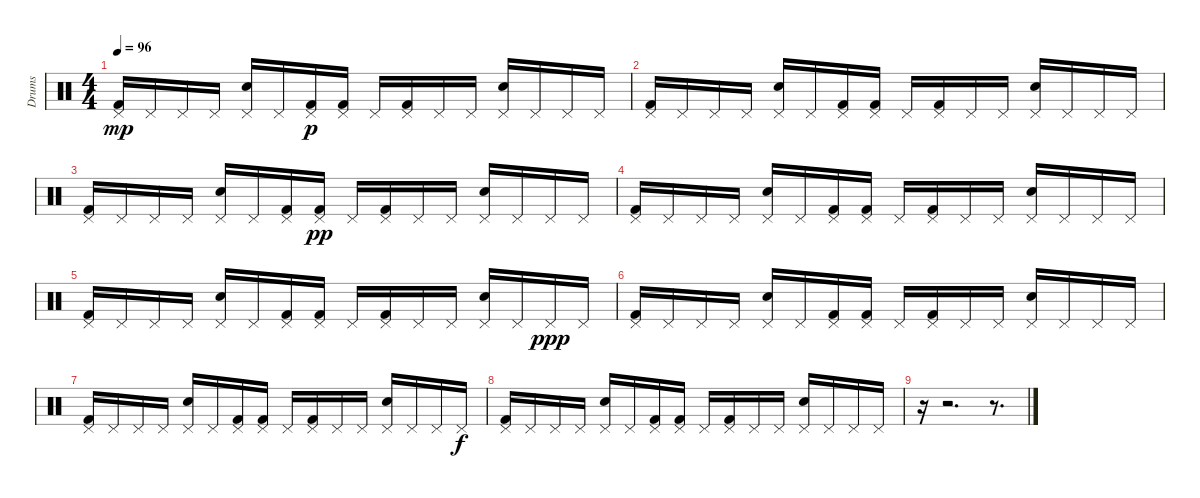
\track ("Drums" "Drums") {instrument percussion}
\staff {score}
\articulation defaults
\ts (4 4)
\tempo 96
\clef neutral
\ks c
("Pedal Hi-Hat (hit)" "Kick (hit) 2").16{dy mp} "Pedal Hi-Hat (hit)".16 "Pedal Hi-Hat (hit)".16 "Pedal Hi-Hat (hit)".16 ("Electric Snare (hit)" "Pedal Hi-Hat (hit)").16 "Pedal Hi-Hat (hit)".16 ("Pedal Hi-Hat (hit)" "Kick (hit) 2").16{dy p} ("Pedal Hi-Hat (hit)" "Kick (hit) 2").16 "Pedal Hi-Hat (hit)".16 ("Pedal Hi-Hat (hit)" "Kick (hit) 2").16 "Pedal Hi-Hat (hit)".16 "Pedal Hi-Hat (hit)".16 ("Electric Snare (hit)" "Pedal Hi-Hat (hit)").16 "Pedal Hi-Hat (hit)".16 "Pedal Hi-Hat (hit)".16 "Pedal Hi-Hat (hit)".16 |
("Pedal Hi-Hat (hit)" "Kick (hit) 2").16 "Pedal Hi-Hat (hit)".16 "Pedal Hi-Hat (hit)".16 "Pedal Hi-Hat (hit)".16 ("Electric Snare (hit)" "Pedal Hi-Hat (hit)").16 "Pedal Hi-Hat (hit)".16 ("Pedal Hi-Hat (hit)" "Kick (hit) 2").16 ("Pedal Hi-Hat (hit)" "Kick (hit) 2").16 "Pedal Hi-Hat (hit)".16 ("Pedal Hi-Hat (hit)" "Kick (hit) 2").16 "Pedal Hi-Hat (hit)".16 "Pedal Hi-Hat (hit)".16 ("Electric Snare (hit)" "Pedal Hi-Hat (hit)").16 "Pedal Hi-Hat (hit)".16 "Pedal Hi-Hat (hit)".16 "Pedal Hi-Hat (hit)".16 |
("Pedal Hi-Hat (hit)" "Kick (hit) 2").16 "Pedal Hi-Hat (hit)".16 "Pedal Hi-Hat (hit)".16 "Pedal Hi-Hat (hit)".16 ("Electric Snare (hit)" "Pedal Hi-Hat (hit)").16 "Pedal Hi-Hat (hit)".16 ("Pedal Hi-Hat (hit)" "Kick (hit) 2").16 ("Pedal Hi-Hat (hit)" "Kick (hit) 2").16{dy pp} "Pedal Hi-Hat (hit)".16 ("Pedal Hi-Hat (hit)" "Kick (hit) 2").16 "Pedal Hi-Hat (hit)".16 "Pedal Hi-Hat (hit)".16 ("Electric Snare (hit)" "Pedal Hi-Hat (hit)").16 "Pedal Hi-Hat (hit)".16 "Pedal Hi-Hat (hit)".16 "Pedal Hi-Hat (hit)".16 |
("Pedal Hi-Hat (hit)" "Kick (hit) 2").16 "Pedal Hi-Hat (hit)".16 "Pedal Hi-Hat (hit)".16 "Pedal Hi-Hat (hit)".16 ("Electric Snare (hit)" "Pedal Hi-Hat (hit)").16 "Pedal Hi-Hat (hit)".16 ("Pedal Hi-Hat (hit)" "Kick (hit) 2").16 ("Pedal Hi-Hat (hit)" "Kick (hit) 2").16 "Pedal Hi-Hat (hit)".16 ("Pedal Hi-Hat (hit)" "Kick (hit) 2").16 "Pedal Hi-Hat (hit)".16 "Pedal Hi-Hat (hit)".16 ("Electric Snare (hit)" "Pedal Hi-Hat (hit)").16 "Pedal Hi-Hat (hit)".16 "Pedal Hi-Hat (hit)".16 "Pedal Hi-Hat (hit)".16 |
("Pedal Hi-Hat (hit)" "Kick (hit) 2").16 "Pedal Hi-Hat (hit)".16 "Pedal Hi-Hat (hit)".16 "Pedal Hi-Hat (hit)".16 ("Electric Snare (hit)" "Pedal Hi-Hat (hit)").16 "Pedal Hi-Hat (hit)".16 ("Pedal Hi-Hat (hit)" "Kick (hit) 2").16 ("Pedal Hi-Hat (hit)" "Kick (hit) 2").16 "Pedal Hi-Hat (hit)".16 ("Pedal Hi-Hat (hit)" "Kick (hit) 2").16 "Pedal Hi-Hat (hit)".16 "Pedal Hi-Hat (hit)".16 ("Electric Snare (hit)" "Pedal Hi-Hat (hit)").16 "Pedal Hi-Hat (hit)".16 "Pedal Hi-Hat (hit)".16{dy ppp} "Pedal Hi-Hat (hit)".16 |
("Pedal Hi-Hat (hit)" "Kick (hit) 2").16 "Pedal Hi-Hat (hit)".16 "Pedal Hi-Hat (hit)".16 "Pedal Hi-Hat (hit)".16 ("Electric Snare (hit)" "Pedal Hi-Hat (hit)").16 "Pedal Hi-Hat (hit)".16 ("Pedal Hi-Hat (hit)" "Kick (hit) 2").16 ("Pedal Hi-Hat (hit)" "Kick (hit) 2").16 "Pedal Hi-Hat (hit)".16 ("Pedal Hi-Hat (hit)" "Kick (hit) 2").16 "Pedal Hi-Hat (hit)".16 "Pedal Hi-Hat (hit)".16 ("Electric Snare (hit)" "Pedal Hi-Hat (hit)").16 "Pedal Hi-Hat (hit)".16 "Pedal Hi-Hat (hit)".16 "Pedal Hi-Hat (hit)".16 |
("Pedal Hi-Hat (hit)" "Kick (hit) 2").16 "Pedal Hi-Hat (hit)".16 "Pedal Hi-Hat (hit)".16 "Pedal Hi-Hat (hit)".16 ("Electric Snare (hit)" "Pedal Hi-Hat (hit)").16 "Pedal Hi-Hat (hit)".16 ("Pedal Hi-Hat (hit)" "Kick (hit) 2").16 ("Pedal Hi-Hat (hit)" "Kick (hit) 2").16 "Pedal Hi-Hat (hit)".16 ("Pedal Hi-Hat (hit)" "Kick (hit) 2").16 "Pedal Hi-Hat (hit)".16 "Pedal Hi-Hat (hit)".16 ("Electric Snare (hit)" "Pedal Hi-Hat (hit)").16 "Pedal Hi-Hat (hit)".16 "Pedal Hi-Hat (hit)".16 "Pedal Hi-Hat (hit)".16{dy f} |
("Pedal Hi-Hat (hit)" "Kick (hit) 2").16 "Pedal Hi-Hat (hit)".16 "Pedal Hi-Hat (hit)".16 "Pedal Hi-Hat (hit)".16 ("Electric Snare (hit)" "Pedal Hi-Hat (hit)").16 "Pedal Hi-Hat (hit)".16 ("Pedal Hi-Hat (hit)" "Kick (hit) 2").16 ("Pedal Hi-Hat (hit)" "Kick (hit) 2").16 "Pedal Hi-Hat (hit)".16 ("Pedal Hi-Hat (hit)" "Kick (hit) 2").16 "Pedal Hi-Hat (hit)".16 "Pedal Hi-Hat (hit)".16 ("Electric Snare (hit)" "Pedal Hi-Hat (hit)").16 "Pedal Hi-Hat (hit)".16 "Pedal Hi-Hat (hit)".16 "Pedal Hi-Hat (hit)".16 |
r.16 r.2{d} r.8{d}
